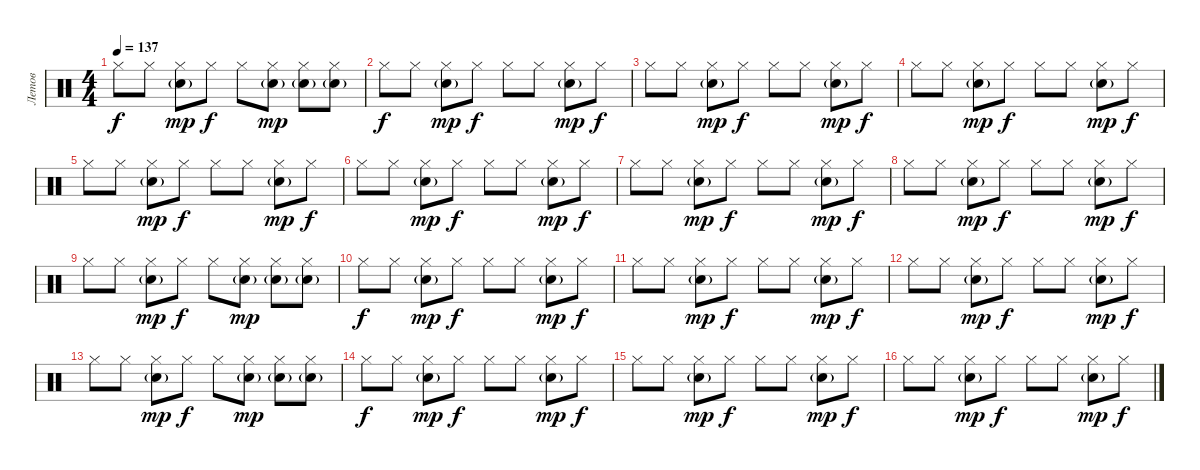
\track ("Летов" "Летов") {instrument percussion}
\staff {score}
\articulation defaults
\ts (4 4)
\tempo 137
\clef neutral
\ks c "Hi-Hat (closed)".8{dy f} "Hi-Hat (closed)".8
("Hi-Hat (closed)" "Electric Snare (hit)"{g}).8{dy mp} "Hi-Hat (closed)".8{dy f} "Hi-Hat (closed)".8 ("Hi-Hat (closed)" "Electric Snare (hit)"{g}).8{dy mp} ("Hi-Hat (closed)" "Electric Snare (hit)"{g}).8 ("Hi-Hat (closed)" "Electric Snare (hit)"{g}).8 |
"Hi-Hat (closed)".8{dy f} "Hi-Hat (closed)".8 ("Hi-Hat (closed)" "Electric Snare (hit)"{g}).8{dy mp} "Hi-Hat (closed)".8{dy f} "Hi-Hat (closed)".8 "Hi-Hat (closed)".8 ("Hi-Hat (closed)" "Electric Snare (hit)"{g}).8{dy mp} "Hi-Hat (closed)".8{dy f} |
"Hi-Hat (closed)".8 "Hi-Hat (closed)".8 ("Hi-Hat (closed)" "Electric Snare (hit)"{g}).8{dy mp} "Hi-Hat (closed)".8{dy f} "Hi-Hat (closed)".8 "Hi-Hat (closed)".8 ("Hi-Hat (closed)" "Electric Snare (hit)"{g}).8{dy mp} "Hi-Hat (closed)".8{dy f} |
"Hi-Hat (closed)".8 "Hi-Hat (closed)".8 ("Hi-Hat (closed)" "Electric Snare (hit)"{g}).8{dy mp} "Hi-Hat (closed)".8{dy f} "Hi-Hat (closed)".8 "Hi-Hat (closed)".8 ("Hi-Hat (closed)" "Electric Snare (hit)"{g}).8{dy mp} "Hi-Hat (closed)".8{dy f} |
"Hi-Hat (closed)".8 "Hi-Hat (closed)".8 ("Hi-Hat (closed)" "Electric Snare (hit)"{g}).8{dy mp} "Hi-Hat (closed)".8{dy f} "Hi-Hat (closed)".8 "Hi-Hat (closed)".8 ("Hi-Hat (closed)" "Electric Snare (hit)"{g}).8{dy mp} "Hi-Hat (closed)".8{dy f} |
"Hi-Hat (closed)".8 "Hi-Hat (closed)".8 ("Hi-Hat (closed)" "Electric Snare (hit)"{g}).8{dy mp} "Hi-Hat (closed)".8{dy f} "Hi-Hat (closed)".8 "Hi-Hat (closed)".8 ("Hi-Hat (closed)" "Electric Snare (hit)"{g}).8{dy mp} "Hi-Hat (closed)".8{dy f} |
"Hi-Hat (closed)".8 "Hi-Hat (closed)".8 ("Hi-Hat (closed)" "Electric Snare (hit)"{g}).8{dy mp} "Hi-Hat (closed)".8{dy f} "Hi-Hat (closed)".8 "Hi-Hat (closed)".8 ("Hi-Hat (closed)" "Electric Snare (hit)"{g}).8{dy mp} "Hi-Hat (closed)".8{dy f} |
"Hi-Hat (closed)".8 "Hi-Hat (closed)".8 ("Hi-Hat (closed)" "Electric Snare (hit)"{g}).8{dy mp} "Hi-Hat (closed)".8{dy f} "Hi-Hat (closed)".8 "Hi-Hat (closed)".8 ("Hi-Hat (closed)" "Electric Snare (hit)"{g}).8{dy mp} "Hi-Hat (closed)".8{dy f} |
"Hi-Hat (closed)".8 "Hi-Hat (closed)".8 ("Hi-Hat (closed)" "Electric Snare (hit)"{g}).8{dy mp} "Hi-Hat (closed)".8{dy f} "Hi-Hat (closed)".8 ("Hi-Hat (closed)" "Electric Snare (hit)"{g}).8{dy mp} ("Hi-Hat (closed)" "Electric Snare (hit)"{g}).8 ("Hi-Hat (closed)" "Electric Snare (hit)"{g}).8 |
"Hi-Hat (closed)".8{dy f} "Hi-Hat (closed)".8 ("Hi-Hat (closed)" "Electric Snare (hit)"{g}).8{dy mp} "Hi-Hat (closed)".8{dy f} "Hi-Hat (closed)".8 "Hi-Hat (closed)".8 ("Hi-Hat (closed)" "Electric Snare (hit)"{g}).8{dy mp} "Hi-Hat (closed)".8{dy f} |
"Hi-Hat (closed)".8 "Hi-Hat (closed)".8 ("Hi-Hat (closed)" "Electric Snare (hit)"{g}).8{dy mp} "Hi-Hat (closed)".8{dy f} "Hi-Hat (closed)".8 "Hi-Hat (closed)".8 ("Hi-Hat (closed)" "Electric Snare (hit)"{g}).8{dy mp} "Hi-Hat (closed)".8{dy f} |
"Hi-Hat (closed)".8 "Hi-Hat (closed)".8 ("Hi-Hat (closed)" "Electric Snare (hit)"{g}).8{dy mp} "Hi-Hat (closed)".8{dy f} "Hi-Hat (closed)".8 "Hi-Hat (closed)".8 ("Hi-Hat (closed)" "Electric Snare (hit)"{g}).8{dy mp} "Hi-Hat (closed)".8{dy f} |
"Hi-Hat (closed)".8 "Hi-Hat (closed)".8 ("Hi-Hat (closed)" "Electric Snare (hit)"{g}).8{dy mp} "Hi-Hat (closed)".8{dy f} "Hi-Hat (closed)".8 ("Hi-Hat (closed)" "Electric Snare (hit)"{g}).8{dy mp} ("Hi-Hat (closed)" "Electric Snare (hit)"{g}).8 ("Hi-Hat (closed)" "Electric Snare (hit)"{g}).8 |
"Hi-Hat (closed)".8{dy f} "Hi-Hat (closed)".8 ("Hi-Hat (closed)" "Electric Snare (hit)"{g}).8{dy mp} "Hi-Hat (closed)".8{dy f} "Hi-Hat (closed)".8 "Hi-Hat (closed)".8 ("Hi-Hat (closed)" "Electric Snare (hit)"{g}).8{dy mp} "Hi-Hat (closed)".8{dy f} |
"Hi-Hat (closed)".8 "Hi-Hat (closed)".8 ("Hi-Hat (closed)" "Electric Snare (hit)"{g}).8{dy mp} "Hi-Hat (closed)".8{dy f} "Hi-Hat (closed)".8 "Hi-Hat (closed)".8 ("Hi-Hat (closed)" "Electric Snare (hit)"{g}).8{dy mp} "Hi-Hat (closed)".8{dy f} |
"Hi-Hat (closed)".8 "Hi-Hat (closed)".8 ("Hi-Hat (closed)" "Electric Snare (hit)"{g}).8{dy mp} "Hi-Hat (closed)".8{dy f} "Hi-Hat (closed)".8 "Hi-Hat (closed)".8 ("Hi-Hat (closed)" "Electric Snare (hit)"{g}).8{dy mp} "Hi-Hat (closed)".8{dy f}
